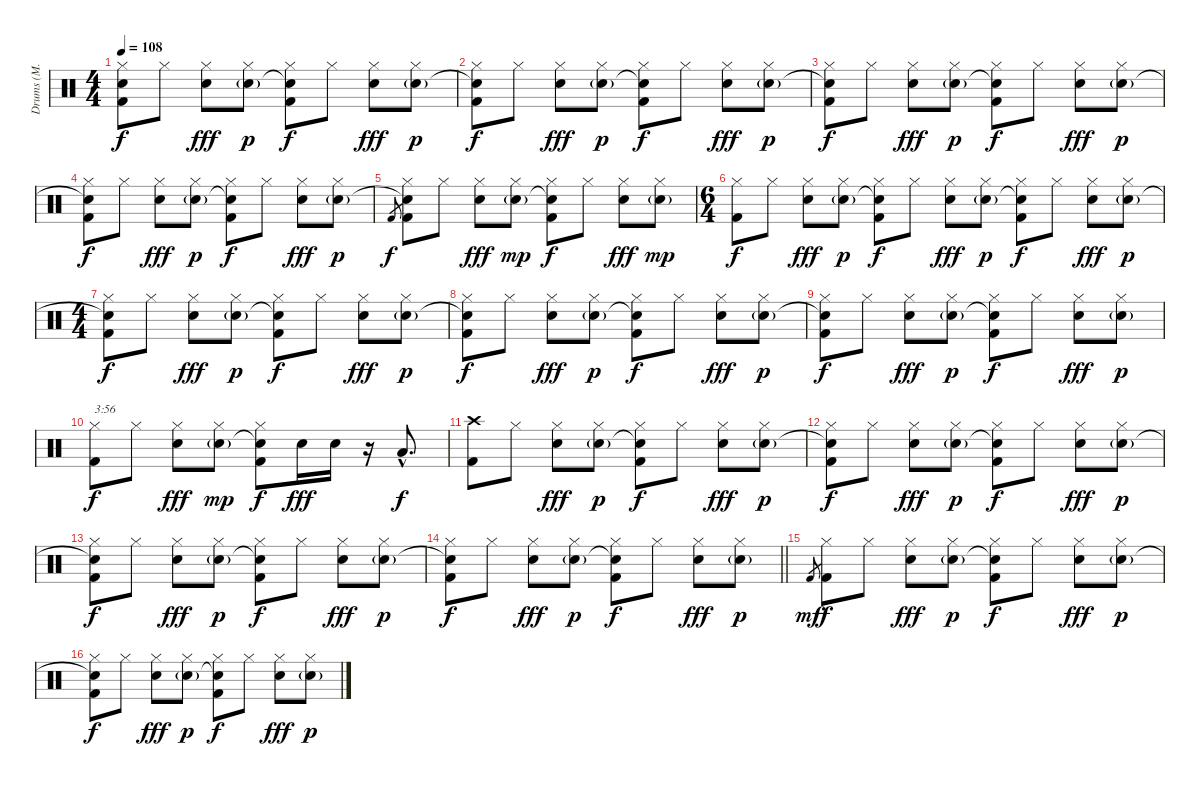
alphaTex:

\track ("Drums (M. Chambers)" "Drums (M. ") {instrument percussion}
\staff {score}
\articulation defaults
\ts (4 4)
\tempo 108
\clef neutral
\ks c
("Hi-Hat (closed)" "Snare (hit)"{t} "Kick (hit) 2").8{dy f} "Hi-Hat (closed)".8 ("Hi-Hat (closed)" "Electric Snare (hit)").8{dy fff} ("Hi-Hat (closed)" "Electric Snare (hit)"{g}).8{dy p} ("Hi-Hat (closed)" "Snare (hit)"{t} "Kick (hit) 2").8{dy f} "Hi-Hat (closed)".8 ("Hi-Hat (closed)" "Electric Snare (hit)").8{dy fff} ("Hi-Hat (closed)" "Electric Snare (hit)"{g}).8{dy p} |
("Hi-Hat (closed)" "Snare (hit)"{t} "Kick (hit) 2").8{dy f} "Hi-Hat (closed)".8 ("Hi-Hat (closed)" "Electric Snare (hit)").8{dy fff} ("Hi-Hat (closed)" "Electric Snare (hit)"{g}).8{dy p} ("Hi-Hat (closed)" "Snare (hit)"{t} "Kick (hit) 2").8{dy f} "Hi-Hat (closed)".8 ("Hi-Hat (closed)" "Electric Snare (hit)").8{dy fff} ("Hi-Hat (closed)" "Electric Snare (hit)"{g}).8{dy p} |
("Hi-Hat (closed)" "Snare (hit)"{t} "Kick (hit) 2").8{dy f} "Hi-Hat (closed)".8 ("Hi-Hat (closed)" "Electric Snare (hit)").8{dy fff} ("Hi-Hat (closed)" "Electric Snare (hit)"{g}).8{dy p} ("Hi-Hat (closed)" "Snare (hit)"{t} "Kick (hit) 2").8{dy f} "Hi-Hat (closed)".8 ("Hi-Hat (closed)" "Electric Snare (hit)").8{dy fff} ("Hi-Hat (closed)" "Electric Snare (hit)"{g}).8{dy p} |
("Hi-Hat (closed)" "Snare (hit)"{t} "Kick (hit) 2").8{dy f} "Hi-Hat (closed)".8 ("Hi-Hat (closed)" "Electric Snare (hit)").8{dy fff} ("Hi-Hat (closed)" "Electric Snare (hit)"{g}).8{dy p} ("Hi-Hat (closed)" "Snare (hit)"{t} "Kick (hit) 2").8{dy f} "Hi-Hat (closed)".8 ("Hi-Hat (closed)" "Electric Snare (hit)").8{dy fff} ("Hi-Hat (closed)" "Electric Snare (hit)"{g}).8{dy p} |
"Kick (hit) 2".8{gr dy f} ("Hi-Hat (closed)" "Snare (hit)"{t} "Kick (hit) 2").8 "Hi-Hat (closed)".8 ("Hi-Hat (closed)" "Electric Snare (hit)").8{dy fff} ("Hi-Hat (closed)" "Electric Snare (hit)"{g}).8{dy mp} ("Hi-Hat (closed)" "Snare (hit)"{t} "Kick (hit) 2").8{dy f} "Hi-Hat (closed)".8 ("Hi-Hat (closed)" "Electric Snare (hit)").8{dy fff} ("Hi-Hat (closed)" "Electric Snare (hit)"{g}).8{dy mp} |
\ts (6 4)
("Hi-Hat (closed)" "Kick (hit) 2").8{dy f} "Hi-Hat (closed)".8 ("Hi-Hat (closed)" "Electric Snare (hit)").8{dy fff} ("Hi-Hat (closed)" "Electric Snare (hit)"{g}).8{dy p} ("Hi-Hat (closed)" "Snare (hit)"{t} "Kick (hit) 2").8{dy f} "Hi-Hat (closed)".8 ("Hi-Hat (closed)" "Electric Snare (hit)").8{dy fff} ("Hi-Hat (closed)" "Electric Snare (hit)"{g}).8{dy p} ("Hi-Hat (closed)" "Snare (hit)"{t} "Kick (hit) 2").8{dy f} "Hi-Hat (closed)".8 ("Hi-Hat (closed)" "Electric Snare (hit)").8{dy fff} ("Hi-Hat (closed)" "Electric Snare (hit)"{g}).8{dy p} |
\ts (4 4)
("Hi-Hat (closed)" "Snare (hit)"{t} "Kick (hit) 2").8{dy f} "Hi-Hat (closed)".8 ("Hi-Hat (closed)" "Electric Snare (hit)").8{dy fff} ("Hi-Hat (closed)" "Electric Snare (hit)"{g}).8{dy p} ("Hi-Hat (closed)" "Snare (hit)"{t} "Kick (hit) 2").8{dy f} "Hi-Hat (closed)".8 ("Hi-Hat (closed)" "Electric Snare (hit)").8{dy fff} ("Hi-Hat (closed)" "Electric Snare (hit)"{g}).8{dy p} |
("Hi-Hat (closed)" "Snare (hit)"{t} "Kick (hit) 2").8{dy f} "Hi-Hat (closed)".8 ("Hi-Hat (closed)" "Electric Snare (hit)").8{dy fff} ("Hi-Hat (closed)" "Electric Snare (hit)"{g}).8{dy p} ("Hi-Hat (closed)" "Snare (hit)"{t} "Kick (hit) 2").8{dy f} "Hi-Hat (closed)".8 ("Hi-Hat (closed)" "Electric Snare (hit)").8{dy fff} ("Hi-Hat (closed)" "Electric Snare (hit)"{g}).8{dy p} |
("Hi-Hat (closed)" "Snare (hit)"{t} "Kick (hit) 2").8{dy f} "Hi-Hat (closed)".8 ("Hi-Hat (closed)" "Electric Snare (hit)").8{dy fff} ("Hi-Hat (closed)" "Electric Snare (hit)"{g}).8{dy p} ("Hi-Hat (closed)" "Snare (hit)"{t} "Kick (hit) 2").8{dy f} "Hi-Hat (closed)".8 ("Hi-Hat (closed)" "Electric Snare (hit)").8{dy fff} ("Hi-Hat (closed)" "Electric Snare (hit)"{g}).8{dy p} |
("Hi-Hat (closed)" "Kick (hit) 2").8{txt "3:56" dy f} "Hi-Hat (closed)".8 ("Hi-Hat (closed)" "Electric Snare (hit)").8{dy fff} ("Hi-Hat (closed)" "Electric Snare (hit)"{g}).8{dy mp} ("Hi-Hat (closed)" "Snare (hit)"{t} "Kick (hit) 2").8{dy f} "Electric Snare (hit)".16{dy fff} "Electric Snare (hit)".16 r.16 "Low Tom (hit)"{hac}.8{d dy f} |
("Crash high (hit)" "Kick (hit) 2").8 "Hi-Hat (closed)".8 ("Hi-Hat (closed)" "Electric Snare (hit)").8{dy fff} ("Hi-Hat (closed)" "Electric Snare (hit)"{g}).8{dy p} ("Hi-Hat (closed)" "Snare (hit)"{t} "Kick (hit) 2").8{dy f} "Hi-Hat (closed)".8 ("Hi-Hat (closed)" "Electric Snare (hit)").8{dy fff} ("Hi-Hat (closed)" "Electric Snare (hit)"{g}).8{dy p} |
("Hi-Hat (closed)" "Snare (hit)"{t} "Kick (hit) 2").8{dy f} "Hi-Hat (closed)".8 ("Hi-Hat (closed)" "Electric Snare (hit)").8{dy fff} ("Hi-Hat (closed)" "Electric Snare (hit)"{g}).8{dy p} ("Hi-Hat (closed)" "Snare (hit)"{t} "Kick (hit) 2").8{dy f} "Hi-Hat (closed)".8 ("Hi-Hat (closed)" "Electric Snare (hit)").8{dy fff} ("Hi-Hat (closed)" "Electric Snare (hit)"{g}).8{dy p} |
("Hi-Hat (closed)" "Snare (hit)"{t} "Kick (hit) 2").8{dy f} "Hi-Hat (closed)".8 ("Hi-Hat (closed)" "Electric Snare (hit)").8{dy fff} ("Hi-Hat (closed)" "Electric Snare (hit)"{g}).8{dy p} ("Hi-Hat (closed)" "Snare (hit)"{t} "Kick (hit) 2").8{dy f} "Hi-Hat (closed)".8 ("Hi-Hat (closed)" "Electric Snare (hit)").8{dy fff} ("Hi-Hat (closed)" "Electric Snare (hit)"{g}).8{dy p} |
\barLineRight lightlight
("Hi-Hat (closed)" "Snare (hit)"{t} "Kick (hit) 2").8{dy f} "Hi-Hat (closed)".8 ("Hi-Hat (closed)" "Electric Snare (hit)").8{dy fff} ("Hi-Hat (closed)" "Electric Snare (hit)"{g}).8{dy p} ("Hi-Hat (closed)" "Snare (hit)"{t} "Kick (hit) 2").8{dy f} "Hi-Hat (closed)".8 ("Hi-Hat (closed)" "Electric Snare (hit)").8{dy fff} ("Hi-Hat (closed)" "Electric Snare (hit)"{g}).8{dy p} |
"Kick (hit) 2".8{gr dy mf} ("Hi-Hat (closed)" "Kick (hit) 2").8{dy f} "Hi-Hat (closed)".8 ("Hi-Hat (closed)" "Electric Snare (hit)").8{dy fff} ("Hi-Hat (closed)" "Electric Snare (hit)"{g}).8{dy p} ("Hi-Hat (closed)" "Snare (hit)"{t} "Kick (hit) 2").8{dy f} "Hi-Hat (closed)".8 ("Hi-Hat (closed)" "Electric Snare (hit)").8{dy fff} ("Hi-Hat (closed)" "Electric Snare (hit)"{g}).8{dy p} |
("Hi-Hat (closed)" "Snare (hit)"{t} "Kick (hit) 2").8{dy f} "Hi-Hat (closed)".8 ("Hi-Hat (closed)" "Electric Snare (hit)").8{dy fff} ("Hi-Hat (closed)" "Electric Snare (hit)"{g}).8{dy p} ("Hi-Hat (closed)" "Snare (hit)"{t} "Kick (hit) 2").8{dy f} "Hi-Hat (closed)".8 ("Hi-Hat (closed)" "Electric Snare (hit)").8{dy fff} ("Hi-Hat (closed)" "Electric Snare (hit)"{g}).8{dy p}
